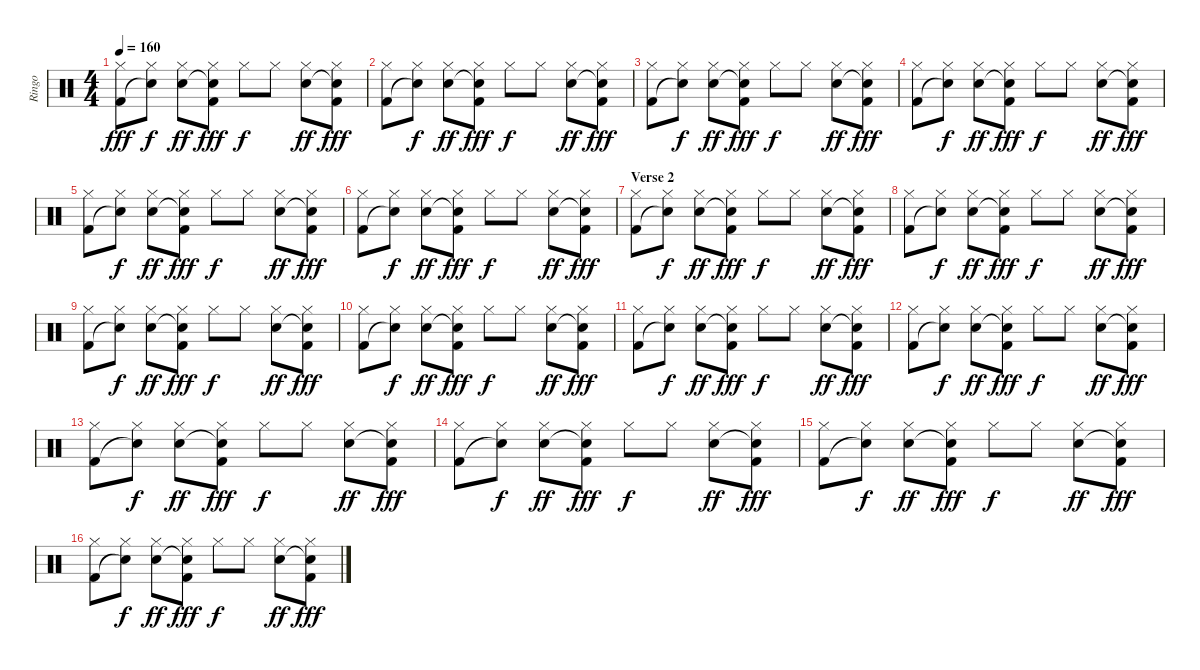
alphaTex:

\track ("Ringo" "Ringo") {instrument percussion}
\staff {score}
\articulation defaults
\ts (4 4)
\tempo 160
\clef neutral
\ks c
("Hi-Hat (closed)" "Kick (hit) 2").8{dy fff} ("Hi-Hat (closed)" "Snare (hit)"{t}).8{dy f} ("Hi-Hat (closed)" "Snare (hit) 2").8{dy ff} ("Hi-Hat (closed)" "Snare (hit)"{t} "Kick (hit) 2").8{dy fff} "Hi-Hat (closed)".8{dy f} "Hi-Hat (closed)".8 ("Hi-Hat (closed)" "Snare (hit) 2").8{dy ff} ("Hi-Hat (closed)" "Snare (hit)"{t} "Kick (hit) 2").8{dy fff} |
("Hi-Hat (closed)" "Kick (hit) 2").8 ("Hi-Hat (closed)" "Snare (hit)"{t}).8{dy f} ("Hi-Hat (closed)" "Snare (hit) 2").8{dy ff} ("Hi-Hat (closed)" "Snare (hit)"{t} "Kick (hit) 2").8{dy fff} "Hi-Hat (closed)".8{dy f} "Hi-Hat (closed)".8 ("Hi-Hat (closed)" "Snare (hit) 2").8{dy ff} ("Hi-Hat (closed)" "Snare (hit)"{t} "Kick (hit) 2").8{dy fff} |
("Hi-Hat (closed)" "Kick (hit) 2").8 ("Hi-Hat (closed)" "Snare (hit)"{t}).8{dy f} ("Hi-Hat (closed)" "Snare (hit) 2").8{dy ff} ("Hi-Hat (closed)" "Snare (hit)"{t} "Kick (hit) 2").8{dy fff} "Hi-Hat (closed)".8{dy f} "Hi-Hat (closed)".8 ("Hi-Hat (closed)" "Snare (hit) 2").8{dy ff} ("Hi-Hat (closed)" "Snare (hit)"{t} "Kick (hit) 2").8{dy fff} |
("Hi-Hat (closed)" "Kick (hit) 2").8 ("Hi-Hat (closed)" "Snare (hit)"{t}).8{dy f} ("Hi-Hat (closed)" "Snare (hit) 2").8{dy ff} ("Hi-Hat (closed)" "Snare (hit)"{t} "Kick (hit) 2").8{dy fff} "Hi-Hat (closed)".8{dy f} "Hi-Hat (closed)".8 ("Hi-Hat (closed)" "Snare (hit) 2").8{dy ff} ("Hi-Hat (closed)" "Snare (hit)"{t} "Kick (hit) 2").8{dy fff} |
("Hi-Hat (closed)" "Kick (hit) 2").8 ("Hi-Hat (closed)" "Snare (hit)"{t}).8{dy f} ("Hi-Hat (closed)" "Snare (hit) 2").8{dy ff} ("Hi-Hat (closed)" "Snare (hit)"{t} "Kick (hit) 2").8{dy fff} "Hi-Hat (closed)".8{dy f} "Hi-Hat (closed)".8 ("Hi-Hat (closed)" "Snare (hit) 2").8{dy ff} ("Hi-Hat (closed)" "Snare (hit)"{t} "Kick (hit) 2").8{dy fff} |
("Hi-Hat (closed)" "Kick (hit) 2").8 ("Hi-Hat (closed)" "Snare (hit)"{t}).8{dy f} ("Hi-Hat (closed)" "Snare (hit) 2").8{dy ff} ("Hi-Hat (closed)" "Snare (hit)"{t} "Kick (hit) 2").8{dy fff} "Hi-Hat (closed)".8{dy f} "Hi-Hat (closed)".8 ("Hi-Hat (closed)" "Snare (hit) 2").8{dy ff} ("Hi-Hat (closed)" "Snare (hit)"{t} "Kick (hit) 2").8{dy fff} |
\section ("" "Verse 2")
("Hi-Hat (closed)" "Kick (hit) 2").8 ("Hi-Hat (closed)" "Snare (hit)"{t}).8{dy f} ("Hi-Hat (closed)" "Snare (hit) 2").8{dy ff} ("Hi-Hat (closed)" "Snare (hit)"{t} "Kick (hit) 2").8{dy fff} "Hi-Hat (closed)".8{dy f} "Hi-Hat (closed)".8 ("Hi-Hat (closed)" "Snare (hit) 2").8{dy ff} ("Hi-Hat (closed)" "Snare (hit)"{t} "Kick (hit) 2").8{dy fff} |
("Hi-Hat (closed)" "Kick (hit) 2").8 ("Hi-Hat (closed)" "Snare (hit)"{t}).8{dy f} ("Hi-Hat (closed)" "Snare (hit) 2").8{dy ff} ("Hi-Hat (closed)" "Snare (hit)"{t} "Kick (hit) 2").8{dy fff} "Hi-Hat (closed)".8{dy f} "Hi-Hat (closed)".8 ("Hi-Hat (closed)" "Snare (hit) 2").8{dy ff} ("Hi-Hat (closed)" "Snare (hit)"{t} "Kick (hit) 2").8{dy fff} |
("Hi-Hat (closed)" "Kick (hit) 2").8 ("Hi-Hat (closed)" "Snare (hit)"{t}).8{dy f} ("Hi-Hat (closed)" "Snare (hit) 2").8{dy ff} ("Hi-Hat (closed)" "Snare (hit)"{t} "Kick (hit) 2").8{dy fff} "Hi-Hat (closed)".8{dy f} "Hi-Hat (closed)".8 ("Hi-Hat (closed)" "Snare (hit) 2").8{dy ff} ("Hi-Hat (closed)" "Snare (hit)"{t} "Kick (hit) 2").8{dy fff} |
("Hi-Hat (closed)" "Kick (hit) 2").8 ("Hi-Hat (closed)" "Snare (hit)"{t}).8{dy f} ("Hi-Hat (closed)" "Snare (hit) 2").8{dy ff} ("Hi-Hat (closed)" "Snare (hit)"{t} "Kick (hit) 2").8{dy fff} "Hi-Hat (closed)".8{dy f} "Hi-Hat (closed)".8 ("Hi-Hat (closed)" "Snare (hit) 2").8{dy ff} ("Hi-Hat (closed)" "Snare (hit)"{t} "Kick (hit) 2").8{dy fff} |
("Hi-Hat (closed)" "Kick (hit) 2").8 ("Hi-Hat (closed)" "Snare (hit)"{t}).8{dy f} ("Hi-Hat (closed)" "Snare (hit) 2").8{dy ff} ("Hi-Hat (closed)" "Snare (hit)"{t} "Kick (hit) 2").8{dy fff} "Hi-Hat (closed)".8{dy f} "Hi-Hat (closed)".8 ("Hi-Hat (closed)" "Snare (hit) 2").8{dy ff} ("Hi-Hat (closed)" "Snare (hit)"{t} "Kick (hit) 2").8{dy fff} |
("Hi-Hat (closed)" "Kick (hit) 2").8 ("Hi-Hat (closed)" "Snare (hit)"{t}).8{dy f} ("Hi-Hat (closed)" "Snare (hit) 2").8{dy ff} ("Hi-Hat (closed)" "Snare (hit)"{t} "Kick (hit) 2").8{dy fff} "Hi-Hat (closed)".8{dy f} "Hi-Hat (closed)".8 ("Hi-Hat (closed)" "Snare (hit) 2").8{dy ff} ("Hi-Hat (closed)" "Snare (hit)"{t} "Kick (hit) 2").8{dy fff} |
("Hi-Hat (closed)" "Kick (hit) 2").8 ("Hi-Hat (closed)" "Snare (hit)"{t}).8{dy f} ("Hi-Hat (closed)" "Snare (hit) 2").8{dy ff} ("Hi-Hat (closed)" "Snare (hit)"{t} "Kick (hit) 2").8{dy fff} "Hi-Hat (closed)".8{dy f} "Hi-Hat (closed)".8 ("Hi-Hat (closed)" "Snare (hit) 2").8{dy ff} ("Hi-Hat (closed)" "Snare (hit)"{t} "Kick (hit) 2").8{dy fff} |
("Hi-Hat (closed)" "Kick (hit) 2").8 ("Hi-Hat (closed)" "Snare (hit)"{t}).8{dy f} ("Hi-Hat (closed)" "Snare (hit) 2").8{dy ff} ("Hi-Hat (closed)" "Snare (hit)"{t} "Kick (hit) 2").8{dy fff} "Hi-Hat (closed)".8{dy f} "Hi-Hat (closed)".8 ("Hi-Hat (closed)" "Snare (hit) 2").8{dy ff} ("Hi-Hat (closed)" "Snare (hit)"{t} "Kick (hit) 2").8{dy fff} |
("Hi-Hat (closed)" "Kick (hit) 2").8 ("Hi-Hat (closed)" "Snare (hit)"{t}).8{dy f} ("Hi-Hat (closed)" "Snare (hit) 2").8{dy ff} ("Hi-Hat (closed)" "Snare (hit)"{t} "Kick (hit) 2").8{dy fff} "Hi-Hat (closed)".8{dy f} "Hi-Hat (closed)".8 ("Hi-Hat (closed)" "Snare (hit) 2").8{dy ff} ("Hi-Hat (closed)" "Snare (hit)"{t} "Kick (hit) 2").8{dy fff} |
("Hi-Hat (closed)" "Kick (hit) 2").8 ("Hi-Hat (closed)" "Snare (hit)"{t}).8{dy f} ("Hi-Hat (closed)" "Snare (hit) 2").8{dy ff} ("Hi-Hat (closed)" "Snare (hit)"{t} "Kick (hit) 2").8{dy fff} "Hi-Hat (closed)".8{dy f} "Hi-Hat (closed)".8 ("Hi-Hat (closed)" "Snare (hit) 2").8{dy ff} ("Hi-Hat (closed)" "Snare (hit)"{t} "Kick (hit) 2").8{dy fff}
